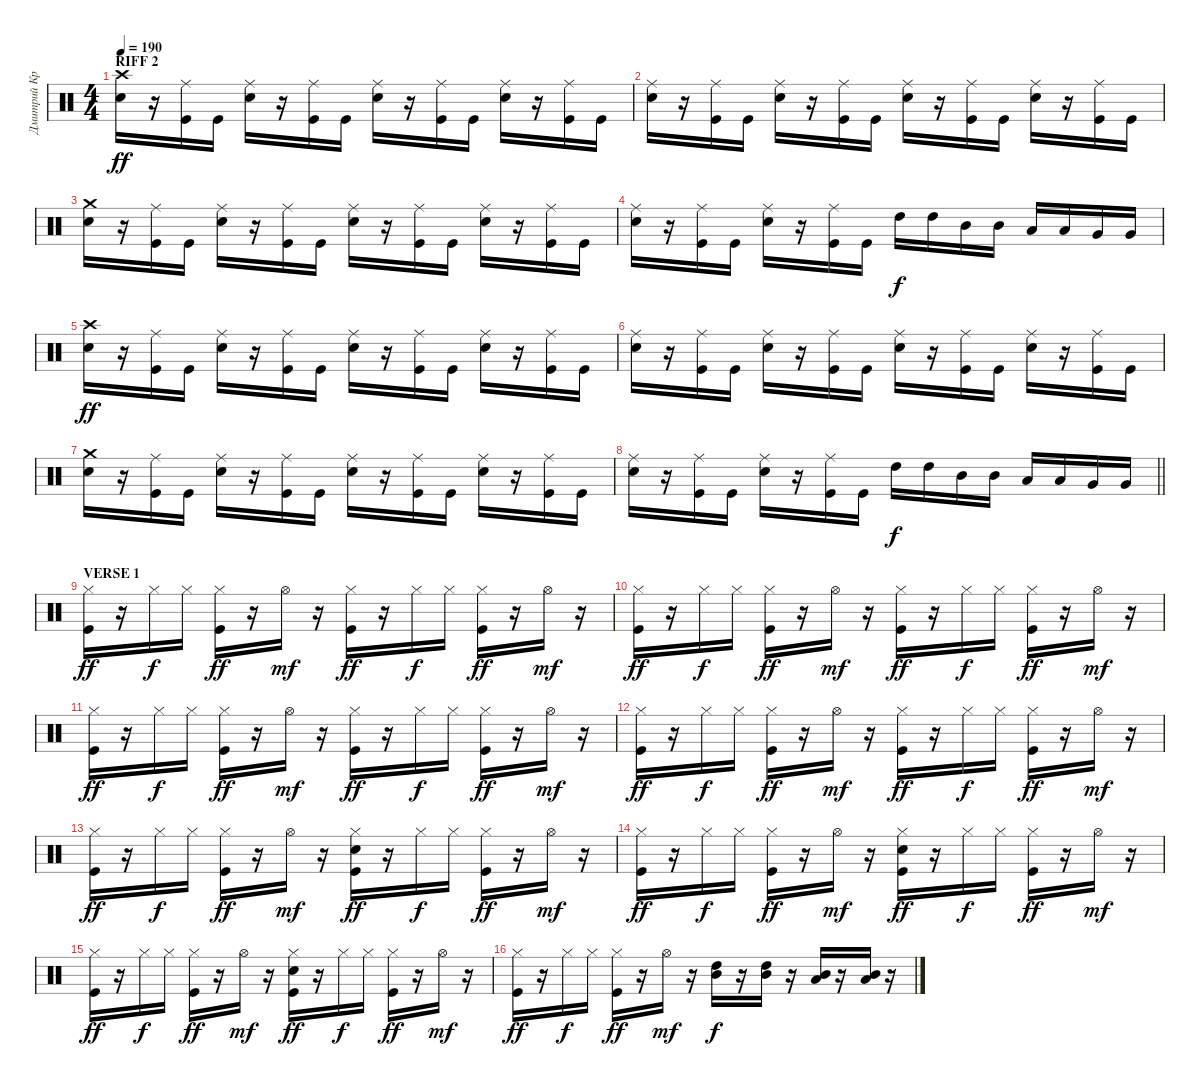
\track ("Дмитрий Кривенков" "Дмитрий Кр") {instrument percussion}
\staff {score}
\articulation defaults
\ts (4 4)
\section ("" "RIFF 2")
\tempo 190
\clef neutral
\ks c
("Snare (hit) 2" "Crash high (hit)").16{dy ff} r.16 ("Ride (middle)" "Kick (hit)").16 "Kick (hit)".16 ("Ride (middle)" "Snare (hit) 2").16 r.16 ("Ride (middle)" "Kick (hit)").16 "Kick (hit)".16 ("Ride (middle)" "Snare (hit) 2").16 r.16 ("Kick (hit)" "Ride (middle)").16 "Kick (hit)".16 ("Ride (middle)" "Snare (hit) 2").16 r.16 ("Ride (middle)" "Kick (hit)").16 "Kick (hit)".16 |
("Snare (hit) 2" "Ride (middle)").16 r.16 ("Ride (middle)" "Kick (hit)").16 "Kick (hit)".16 ("Ride (middle)" "Snare (hit) 2").16 r.16 ("Ride (middle)" "Kick (hit)").16 "Kick (hit)".16 ("Ride (middle)" "Snare (hit) 2").16 r.16 ("Ride (middle)" "Kick (hit)").16 "Kick (hit)".16 ("Ride (middle)" "Snare (hit) 2").16 r.16 ("Ride (middle)" "Kick (hit)").16 "Kick (hit)".16 |
("Crash medium (hit)" "Snare (hit) 2").16 r.16 ("Ride (middle)" "Kick (hit)").16 "Kick (hit)".16 ("Ride (middle)" "Snare (hit) 2").16 r.16 ("Ride (middle)" "Kick (hit)").16 "Kick (hit)".16 ("Ride (middle)" "Snare (hit) 2").16 r.16 ("Ride (middle)" "Kick (hit)").16 "Kick (hit)".16 ("Ride (middle)" "Snare (hit) 2").16 r.16 ("Ride (middle)" "Kick (hit)").16 "Kick (hit)".16 |
("Ride (middle)" "Snare (hit) 2").16 r.16 ("Ride (middle)" "Kick (hit)").16 "Kick (hit)".16 ("Ride (middle)" "Snare (hit) 2").16 r.16 ("Ride (middle)" "Kick (hit)").16 "Kick (hit)".16 "High Tom (hit)".16{dy f} "High Tom (hit)".16 "Mid Tom (hit)".16 "Mid Tom (hit)".16 "Low Tom (hit)".16 "Low Tom (hit)".16 "Very Low Tom (hit)".16 "Very Low Tom (hit)".16 |
("Snare (hit) 2" "Crash high (hit)").16{dy ff} r.16 ("Ride (middle)" "Kick (hit)").16 "Kick (hit)".16 ("Ride (middle)" "Snare (hit) 2").16 r.16 ("Ride (middle)" "Kick (hit)").16 "Kick (hit)".16 ("Ride (middle)" "Snare (hit) 2").16 r.16 ("Kick (hit)" "Ride (middle)").16 "Kick (hit)".16 ("Ride (middle)" "Snare (hit) 2").16 r.16 ("Ride (middle)" "Kick (hit)").16 "Kick (hit)".16 |
("Snare (hit) 2" "Ride (middle)").16 r.16 ("Ride (middle)" "Kick (hit)").16 "Kick (hit)".16 ("Ride (middle)" "Snare (hit) 2").16 r.16 ("Ride (middle)" "Kick (hit)").16 "Kick (hit)".16 ("Ride (middle)" "Snare (hit) 2").16 r.16 ("Ride (middle)" "Kick (hit)").16 "Kick (hit)".16 ("Ride (middle)" "Snare (hit) 2").16 r.16 ("Ride (middle)" "Kick (hit)").16 "Kick (hit)".16 |
("Crash medium (hit)" "Snare (hit) 2").16 r.16 ("Ride (middle)" "Kick (hit)").16 "Kick (hit)".16 ("Ride (middle)" "Snare (hit) 2").16 r.16 ("Ride (middle)" "Kick (hit)").16 "Kick (hit)".16 ("Ride (middle)" "Snare (hit) 2").16 r.16 ("Ride (middle)" "Kick (hit)").16 "Kick (hit)".16 ("Ride (middle)" "Snare (hit) 2").16 r.16 ("Ride (middle)" "Kick (hit)").16 "Kick (hit)".16 |
\barLineRight lightlight
("Ride (middle)" "Snare (hit) 2").16 r.16 ("Ride (middle)" "Kick (hit)").16 "Kick (hit)".16 ("Ride (middle)" "Snare (hit) 2").16 r.16 ("Ride (middle)" "Kick (hit)").16 "Kick (hit)".16 "High Tom (hit)".16{dy f} "High Tom (hit)".16 "Mid Tom (hit)".16 "Mid Tom (hit)".16 "Low Tom (hit)".16 "Low Tom (hit)".16 "Very Low Tom (hit)".16 "Very Low Tom (hit)".16 |
\section ("" "VERSE 1")
("Kick (hit)" "Hi-Hat (closed)").16{dy ff} r.16 "Hi-Hat (closed)".16{dy f} "Hi-Hat (closed)".16 ("Hi-Hat (closed)" "Kick (hit)").16{dy ff} r.16 "Hi-Hat (open)".16{dy mf} r.16 ("Kick (hit)" "Hi-Hat (closed)").16{dy ff} r.16 "Hi-Hat (closed)".16{dy f} "Hi-Hat (closed)".16 ("Kick (hit)" "Hi-Hat (closed)").16{dy ff} r.16 "Hi-Hat (open)".16{dy mf} r.16 |
("Hi-Hat (closed)" "Kick (hit)").16{dy ff} r.16 "Hi-Hat (closed)".16{dy f} "Hi-Hat (closed)".16 ("Kick (hit)" "Hi-Hat (closed)").16{dy ff} r.16 "Hi-Hat (open)".16{dy mf} r.16 ("Hi-Hat (closed)" "Kick (hit)").16{dy ff} r.16 "Hi-Hat (closed)".16{dy f} "Hi-Hat (closed)".16 ("Kick (hit)" "Hi-Hat (closed)").16{dy ff} r.16 "Hi-Hat (open)".16{dy mf} r.16 |
("Hi-Hat (closed)" "Kick (hit)").16{dy ff} r.16 "Hi-Hat (closed)".16{dy f} "Hi-Hat (closed)".16 ("Hi-Hat (closed)" "Kick (hit)").16{dy ff} r.16 "Hi-Hat (open)".16{dy mf} r.16 ("Hi-Hat (closed)" "Kick (hit)").16{dy ff} r.16 "Hi-Hat (closed)".16{dy f} "Hi-Hat (closed)".16 ("Hi-Hat (closed)" "Kick (hit)").16{dy ff} r.16 "Hi-Hat (open)".16{dy mf} r.16 |
("Hi-Hat (closed)" "Kick (hit)").16{dy ff} r.16 "Hi-Hat (closed)".16{dy f} "Hi-Hat (closed)".16 ("Kick (hit)" "Hi-Hat (closed)").16{dy ff} r.16 "Hi-Hat (open)".16{dy mf} r.16 ("Hi-Hat (closed)" "Kick (hit)").16{dy ff} r.16 "Hi-Hat (closed)".16{dy f} "Hi-Hat (closed)".16 ("Kick (hit)" "Hi-Hat (closed)").16{dy ff} r.16 "Hi-Hat (open)".16{dy mf} r.16 |
("Kick (hit)" "Hi-Hat (closed)").16{dy ff} r.16 "Hi-Hat (closed)".16{dy f} "Hi-Hat (closed)".16 ("Hi-Hat (closed)" "Kick (hit)").16{dy ff} r.16 "Hi-Hat (open)".16{dy mf} r.16 ("Kick (hit)" "Hi-Hat (closed)" "Snare (hit) 2").16{dy ff} r.16 "Hi-Hat (closed)".16{dy f} "Hi-Hat (closed)".16 ("Kick (hit)" "Hi-Hat (closed)").16{dy ff} r.16 "Hi-Hat (open)".16{dy mf} r.16 |
("Hi-Hat (closed)" "Kick (hit)").16{dy ff} r.16 "Hi-Hat (closed)".16{dy f} "Hi-Hat (closed)".16 ("Kick (hit)" "Hi-Hat (closed)").16{dy ff} r.16 "Hi-Hat (open)".16{dy mf} r.16 ("Snare (hit) 2" "Hi-Hat (closed)" "Kick (hit)").16{dy ff} r.16 "Hi-Hat (closed)".16{dy f} "Hi-Hat (closed)".16 ("Kick (hit)" "Hi-Hat (closed)").16{dy ff} r.16 "Hi-Hat (open)".16{dy mf} r.16 |
("Hi-Hat (closed)" "Kick (hit)").16{dy ff} r.16 "Hi-Hat (closed)".16{dy f} "Hi-Hat (closed)".16 ("Hi-Hat (closed)" "Kick (hit)").16{dy ff} r.16 "Hi-Hat (open)".16{dy mf} r.16 ("Snare (hit) 2" "Hi-Hat (closed)" "Kick (hit)").16{dy ff} r.16 "Hi-Hat (closed)".16{dy f} "Hi-Hat (closed)".16 ("Hi-Hat (closed)" "Kick (hit)").16{dy ff} r.16 "Hi-Hat (open)".16{dy mf} r.16 |
("Hi-Hat (closed)" "Kick (hit)").16{dy ff} r.16 "Hi-Hat (closed)".16{dy f} "Hi-Hat (closed)".16 ("Kick (hit)" "Hi-Hat (closed)").16{dy ff} r.16 "Hi-Hat (open)".16{dy mf} r.16 ("High Tom (hit)" "Mid Tom (hit)").16{dy f} r.16 ("Mid Tom (hit)" "High Tom (hit)").16 r.16 ("Low Tom (hit)" "Mid Tom (hit)").16 r.16 ("Low Tom (hit)" "Mid Tom (hit)").16 r.16
